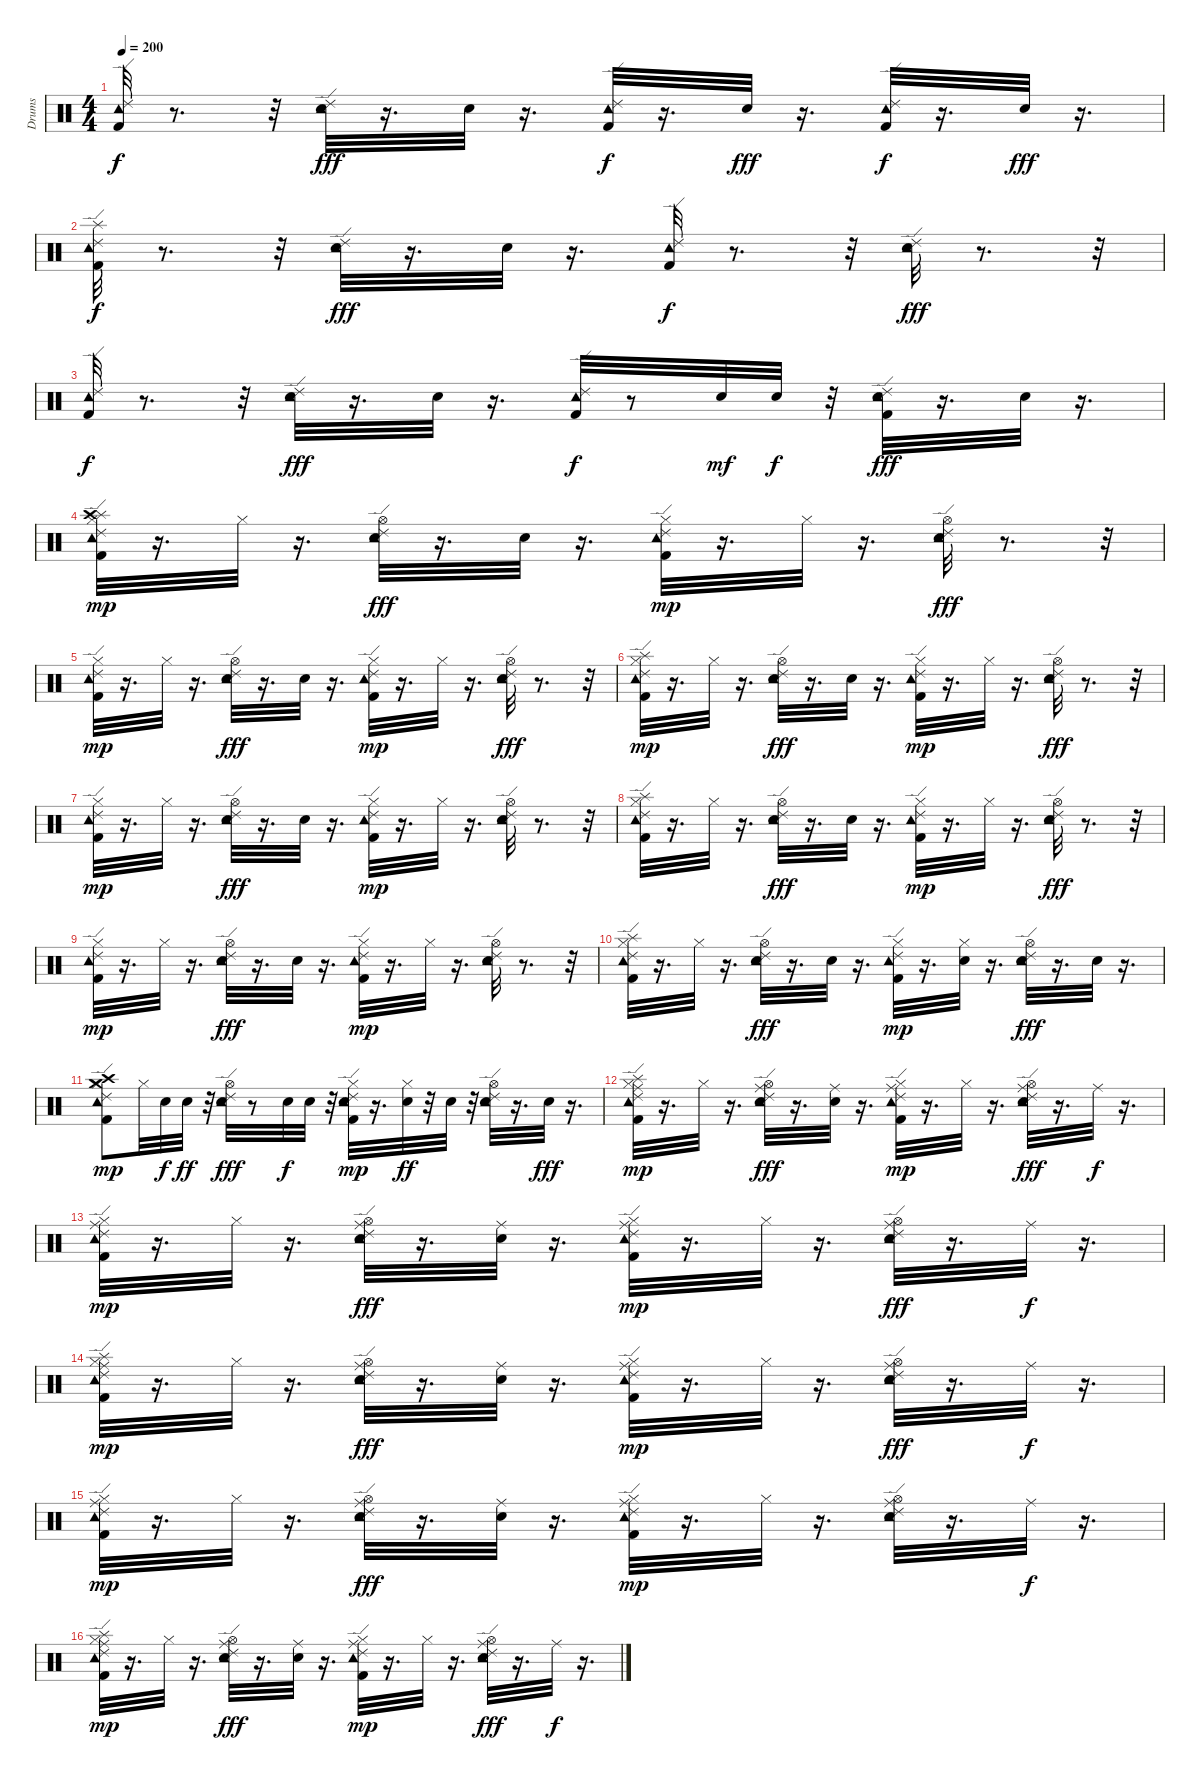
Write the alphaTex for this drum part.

\track ("Drums" "Drums") {instrument percussion}
\staff {score}
\articulation defaults
\ts (4 4)
\tempo 200
\clef neutral
\ks c
("Ride (edge) 2" "Tambourine (hit)" "Kick (hit) 2").32{dy f} r.8{d} r.32 ("Ride (edge) 2" "Tambourine (hit)" "Electric Snare (hit)").32{dy fff} r.16{d} "Electric Snare (hit)".32 r.16{d} ("Ride (edge) 2" "Tambourine (hit)" "Kick (hit) 2").32{dy f} r.16{d} "Electric Snare (hit)".32{dy fff} r.16{d} ("Ride (edge) 2" "Tambourine (hit)" "Kick (hit) 2").32{dy f} r.16{d} "Electric Snare (hit)".32{dy fff} r.16{d} |
("Ride (edge) 2" "Tambourine (hit)" "Kick (hit) 2" "Splash (hit)").32{dy f} r.8{d} r.32 ("Ride (edge) 2" "Tambourine (hit)" "Electric Snare (hit)").32{dy fff} r.16{d} "Electric Snare (hit)".32 r.16{d} ("Ride (edge) 2" "Tambourine (hit)" "Kick (hit) 2").32{dy f} r.8{d} r.32 ("Ride (edge) 2" "Tambourine (hit)" "Electric Snare (hit)").32{dy fff} r.8{d} r.32 |
("Ride (edge) 2" "Tambourine (hit)" "Kick (hit) 2").32{dy f} r.8{d} r.32 ("Ride (edge) 2" "Tambourine (hit)" "Electric Snare (hit)").32{dy fff} r.16{d} "Electric Snare (hit)".32 r.16{d} ("Ride (edge) 2" "Tambourine (hit)" "Kick (hit) 2").32{dy f} r.8 "Electric Snare (hit)".32{dy mf} "Electric Snare (hit)".32{dy f} r.32 ("Electric Snare (hit)" "Ride (edge) 2" "Tambourine (hit)" "Kick (hit) 2").32{dy fff} r.16{d} "Electric Snare (hit)".32 r.16{d} |
("Ride (edge) 2" "Tambourine (hit)" "Hi-Hat (closed)" "Kick (hit) 2" "Splash (hit)" "Crash high (hit)").32{dy mp} r.16{d} "Hi-Hat (closed)".32 r.16{d} ("Ride (edge) 2" "Tambourine (hit)" "Hi-Hat (open)" "Electric Snare (hit)").32{dy fff} r.16{d} "Electric Snare (hit)".32 r.16{d} ("Ride (edge) 2" "Tambourine (hit)" "Kick (hit) 2" "Hi-Hat (closed)").32{dy mp} r.16{d} "Hi-Hat (closed)".32 r.16{d} ("Ride (edge) 2" "Tambourine (hit)" "Hi-Hat (open)" "Electric Snare (hit)").32{dy fff} r.8{d} r.32 |
("Ride (edge) 2" "Tambourine (hit)" "Hi-Hat (closed)" "Kick (hit) 2").32{dy mp} r.16{d} "Hi-Hat (closed)".32 r.16{d} ("Ride (edge) 2" "Tambourine (hit)" "Hi-Hat (open)" "Electric Snare (hit)").32{dy fff} r.16{d} "Electric Snare (hit)".32 r.16{d} ("Ride (edge) 2" "Tambourine (hit)" "Kick (hit) 2" "Hi-Hat (closed)").32{dy mp} r.16{d} "Hi-Hat (closed)".32 r.16{d} ("Ride (edge) 2" "Tambourine (hit)" "Hi-Hat (open)" "Electric Snare (hit)").32{dy fff} r.8{d} r.32 |
("Ride (edge) 2" "Tambourine (hit)" "Hi-Hat (closed)" "Kick (hit) 2" "Splash (hit)").32{dy mp} r.16{d} "Hi-Hat (closed)".32 r.16{d} ("Ride (edge) 2" "Tambourine (hit)" "Hi-Hat (open)" "Electric Snare (hit)").32{dy fff} r.16{d} "Electric Snare (hit)".32 r.16{d} ("Ride (edge) 2" "Tambourine (hit)" "Kick (hit) 2" "Hi-Hat (closed)").32{dy mp} r.16{d} "Hi-Hat (closed)".32 r.16{d} ("Ride (edge) 2" "Tambourine (hit)" "Hi-Hat (open)" "Electric Snare (hit)").32{dy fff} r.8{d} r.32 |
("Tambourine (hit)" "Hi-Hat (closed)" "Kick (hit) 2" "Ride (edge) 2").32{dy mp} r.16{d} "Hi-Hat (closed)".32 r.16{d} ("Ride (edge) 2" "Hi-Hat (open)" "Electric Snare (hit)" "Tambourine (hit)").32{dy fff} r.16{d} "Electric Snare (hit)".32 r.16{d} ("Tambourine (hit)" "Kick (hit) 2" "Hi-Hat (closed)" "Ride (edge) 2").32{dy mp} r.16{d} "Hi-Hat (closed)".32 r.16{d} ("Tambourine (hit)" "Hi-Hat (open)" "Electric Snare (hit)" "Ride (edge) 2").32 r.8{d} r.32 |
("Ride (edge) 2" "Tambourine (hit)" "Hi-Hat (closed)" "Kick (hit) 2" "Splash (hit)").32 r.16{d} "Hi-Hat (closed)".32 r.16{d} ("Ride (edge) 2" "Tambourine (hit)" "Hi-Hat (open)" "Electric Snare (hit)").32{dy fff} r.16{d} "Electric Snare (hit)".32 r.16{d} ("Ride (edge) 2" "Tambourine (hit)" "Kick (hit) 2" "Hi-Hat (closed)").32{dy mp} r.16{d} "Hi-Hat (closed)".32 r.16{d} ("Ride (edge) 2" "Tambourine (hit)" "Hi-Hat (open)" "Electric Snare (hit)").32{dy fff} r.8{d} r.32 |
("Tambourine (hit)" "Hi-Hat (closed)" "Kick (hit) 2" "Ride (edge) 2").32{dy mp} r.16{d} "Hi-Hat (closed)".32 r.16{d} ("Ride (edge) 2" "Hi-Hat (open)" "Electric Snare (hit)" "Tambourine (hit)").32{dy fff} r.16{d} "Electric Snare (hit)".32 r.16{d} ("Tambourine (hit)" "Kick (hit) 2" "Hi-Hat (closed)" "Ride (edge) 2").32{dy mp} r.16{d} "Hi-Hat (closed)".32 r.16{d} ("Tambourine (hit)" "Hi-Hat (open)" "Electric Snare (hit)" "Ride (edge) 2").32 r.8{d} r.32 |
("Ride (edge) 2" "Tambourine (hit)" "Hi-Hat (closed)" "Kick (hit) 2" "Splash (hit)").32 r.16{d} "Hi-Hat (closed)".32 r.16{d} ("Ride (edge) 2" "Tambourine (hit)" "Hi-Hat (open)" "Electric Snare (hit)").32{dy fff} r.16{d} "Electric Snare (hit)".32 r.16{d} ("Ride (edge) 2" "Tambourine (hit)" "Kick (hit) 2" "Hi-Hat (closed)").32{dy mp} r.16{d} ("Electric Snare (hit)" "Hi-Hat (closed)").32 r.16{d} ("Ride (edge) 2" "Tambourine (hit)" "Hi-Hat (open)" "Electric Snare (hit)").32{dy fff} r.16{d} "Electric Snare (hit)".32 r.16{d} |
("Crash high (hit)" "Crash medium (hit)" "Tambourine (hit)" "Hi-Hat (closed)" "Kick (hit) 2" "Ride (edge) 2").8{dy mp} "Hi-Hat (closed)".32 "Electric Snare (hit)".32{dy f} "Electric Snare (hit)".32{dy ff} r.32 ("Ride (edge) 2" "Hi-Hat (open)" "Electric Snare (hit)" "Tambourine (hit)").32{dy fff} r.8 "Electric Snare (hit)".32{dy f} "Electric Snare (hit)".32 r.32 ("Electric Snare (hit)" "Tambourine (hit)" "Kick (hit) 2" "Hi-Hat (closed)" "Ride (edge) 2").32{dy mp} r.16{d} ("Hi-Hat (closed)" "Electric Snare (hit)").32{dy ff} r.32 "Electric Snare (hit)".32 r.32 ("Tambourine (hit)" "Hi-Hat (open)" "Electric Snare (hit)" "Ride (edge) 2").32 r.16{d} "Electric Snare (hit)".32{dy fff} r.16{d} |
("Ride (middle)" "Ride (edge) 2" "Tambourine (hit)" "Hi-Hat (closed)" "Kick (hit) 2" "Splash (hit)").32{dy mp} r.16{d} "Hi-Hat (closed)".32 r.16{d} ("Ride (middle)" "Ride (edge) 2" "Tambourine (hit)" "Hi-Hat (open)" "Electric Snare (hit)").32{dy fff} r.16{d} ("Ride (middle)" "Electric Snare (hit)").32 r.16{d} ("Ride (middle)" "Ride (edge) 2" "Tambourine (hit)" "Kick (hit) 2" "Hi-Hat (closed)").32{dy mp} r.16{d} "Hi-Hat (closed)".32 r.16{d} ("Ride (middle)" "Ride (edge) 2" "Tambourine (hit)" "Hi-Hat (open)" "Electric Snare (hit)").32{dy fff} r.16{d} "Ride (middle)".32{dy f} r.16{d} |
("Ride (middle)" "Ride (edge) 2" "Tambourine (hit)" "Hi-Hat (closed)" "Kick (hit) 2").32{dy mp} r.16{d} "Hi-Hat (closed)".32 r.16{d} ("Ride (middle)" "Ride (edge) 2" "Tambourine (hit)" "Hi-Hat (open)" "Electric Snare (hit)").32{dy fff} r.16{d} ("Ride (middle)" "Electric Snare (hit)").32 r.16{d} ("Ride (middle)" "Ride (edge) 2" "Tambourine (hit)" "Kick (hit) 2" "Hi-Hat (closed)").32{dy mp} r.16{d} "Hi-Hat (closed)".32 r.16{d} ("Ride (middle)" "Ride (edge) 2" "Tambourine (hit)" "Hi-Hat (open)" "Electric Snare (hit)").32{dy fff} r.16{d} "Ride (middle)".32{dy f} r.16{d} |
("Ride (middle)" "Ride (edge) 2" "Tambourine (hit)" "Hi-Hat (closed)" "Kick (hit) 2" "Splash (hit)").32{dy mp} r.16{d} "Hi-Hat (closed)".32 r.16{d} ("Ride (middle)" "Ride (edge) 2" "Tambourine (hit)" "Hi-Hat (open)" "Electric Snare (hit)").32{dy fff} r.16{d} ("Ride (middle)" "Electric Snare (hit)").32 r.16{d} ("Ride (middle)" "Ride (edge) 2" "Tambourine (hit)" "Kick (hit) 2" "Hi-Hat (closed)").32{dy mp} r.16{d} "Hi-Hat (closed)".32 r.16{d} ("Ride (middle)" "Ride (edge) 2" "Tambourine (hit)" "Hi-Hat (open)" "Electric Snare (hit)").32{dy fff} r.16{d} "Ride (middle)".32{dy f} r.16{d} |
("Ride (middle)" "Tambourine (hit)" "Hi-Hat (closed)" "Kick (hit) 2" "Ride (edge) 2").32{dy mp} r.16{d} "Hi-Hat (closed)".32 r.16{d} ("Ride (middle)" "Ride (edge) 2" "Hi-Hat (open)" "Electric Snare (hit)" "Tambourine (hit)").32{dy fff} r.16{d} ("Ride (middle)" "Electric Snare (hit)").32 r.16{d} ("Ride (middle)" "Tambourine (hit)" "Kick (hit) 2" "Hi-Hat (closed)" "Ride (edge) 2").32{dy mp} r.16{d} "Hi-Hat (closed)".32 r.16{d} ("Ride (middle)" "Tambourine (hit)" "Hi-Hat (open)" "Electric Snare (hit)" "Ride (edge) 2").32 r.16{d} "Ride (middle)".32{dy f} r.16{d} |
("Ride (middle)" "Ride (edge) 2" "Tambourine (hit)" "Hi-Hat (closed)" "Kick (hit) 2" "Splash (hit)").32{dy mp} r.16{d} "Hi-Hat (closed)".32 r.16{d} ("Ride (middle)" "Ride (edge) 2" "Tambourine (hit)" "Hi-Hat (open)" "Electric Snare (hit)").32{dy fff} r.16{d} ("Ride (middle)" "Electric Snare (hit)").32 r.16{d} ("Ride (middle)" "Ride (edge) 2" "Tambourine (hit)" "Kick (hit) 2" "Hi-Hat (closed)").32{dy mp} r.16{d} "Hi-Hat (closed)".32 r.16{d} ("Ride (middle)" "Ride (edge) 2" "Tambourine (hit)" "Hi-Hat (open)" "Electric Snare (hit)").32{dy fff} r.16{d} "Ride (middle)".32{dy f} r.16{d}
